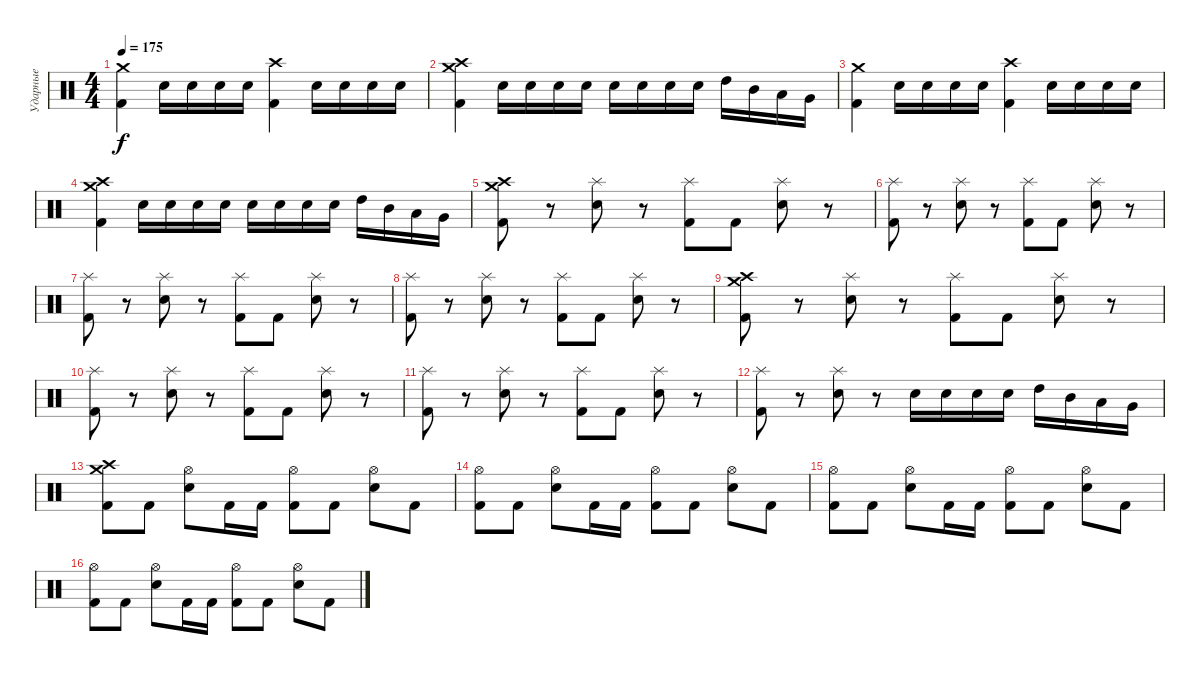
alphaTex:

\track ("Ударные" "Ударные") {instrument percussion}
\staff {score}
\articulation defaults
\ts (4 4)
\tempo 175
\clef neutral
\ks c
("Crash medium (hit)" "Kick (hit) 2").4{dy f} "Electric Snare (hit)".16 "Electric Snare (hit)".16 "Electric Snare (hit)".16 "Electric Snare (hit)".16 ("Crash high (hit)" "Kick (hit) 2").4 "Electric Snare (hit)".16 "Electric Snare (hit)".16 "Electric Snare (hit)".16 "Electric Snare (hit)".16 |
("Crash medium (hit)" "Crash high (hit)" "Kick (hit) 2").4 "Electric Snare (hit)".16 "Electric Snare (hit)".16 "Electric Snare (hit)".16 "Electric Snare (hit)".16 "Electric Snare (hit)".16 "Electric Snare (hit)".16 "Electric Snare (hit)".16 "Electric Snare (hit)".16 "High Tom (hit)".16 "Mid Tom (hit)".16 "Low Tom (hit)".16 "Very Low Tom (hit)".16 |
("Crash medium (hit)" "Kick (hit) 2").4 "Electric Snare (hit)".16 "Electric Snare (hit)".16 "Electric Snare (hit)".16 "Electric Snare (hit)".16 ("Crash high (hit)" "Kick (hit) 2").4 "Electric Snare (hit)".16 "Electric Snare (hit)".16 "Electric Snare (hit)".16 "Electric Snare (hit)".16 |
("Crash medium (hit)" "Crash high (hit)" "Kick (hit) 2").4 "Electric Snare (hit)".16 "Electric Snare (hit)".16 "Electric Snare (hit)".16 "Electric Snare (hit)".16 "Electric Snare (hit)".16 "Electric Snare (hit)".16 "Electric Snare (hit)".16 "Electric Snare (hit)".16 "High Tom (hit)".16 "Mid Tom (hit)".16 "Low Tom (hit)".16 "Very Low Tom (hit)".16 |
("Crash medium (hit)" "Crash high (hit)" "Kick (hit) 2").8 r.8 ("Splash (hit)" "Electric Snare (hit)").8 r.8 ("Splash (hit)" "Kick (hit) 2").8 "Kick (hit) 2".8 ("Splash (hit)" "Electric Snare (hit)").8 r.8 |
("Splash (hit)" "Kick (hit) 2").8 r.8 ("Splash (hit)" "Electric Snare (hit)").8 r.8 ("Splash (hit)" "Kick (hit) 2").8 "Kick (hit) 2".8 ("Splash (hit)" "Electric Snare (hit)").8 r.8 |
("Splash (hit)" "Kick (hit) 2").8 r.8 ("Splash (hit)" "Electric Snare (hit)").8 r.8 ("Splash (hit)" "Kick (hit) 2").8 "Kick (hit) 2".8 ("Splash (hit)" "Electric Snare (hit)").8 r.8 |
("Splash (hit)" "Kick (hit) 2").8 r.8 ("Splash (hit)" "Electric Snare (hit)").8 r.8 ("Splash (hit)" "Kick (hit) 2").8 "Kick (hit) 2".8 ("Splash (hit)" "Electric Snare (hit)").8 r.8 |
("Crash medium (hit)" "Crash high (hit)" "Kick (hit) 2").8 r.8 ("Splash (hit)" "Electric Snare (hit)").8 r.8 ("Splash (hit)" "Kick (hit) 2").8 "Kick (hit) 2".8 ("Splash (hit)" "Electric Snare (hit)").8 r.8 |
("Splash (hit)" "Kick (hit) 2").8 r.8 ("Splash (hit)" "Electric Snare (hit)").8 r.8 ("Splash (hit)" "Kick (hit) 2").8 "Kick (hit) 2".8 ("Splash (hit)" "Electric Snare (hit)").8 r.8 |
("Splash (hit)" "Kick (hit) 2").8 r.8 ("Splash (hit)" "Electric Snare (hit)").8 r.8 ("Splash (hit)" "Kick (hit) 2").8 "Kick (hit) 2".8 ("Splash (hit)" "Electric Snare (hit)").8 r.8 |
("Splash (hit)" "Kick (hit) 2").8 r.8 ("Splash (hit)" "Electric Snare (hit)").8 r.8 "Electric Snare (hit)".16 "Electric Snare (hit)".16 "Electric Snare (hit)".16 "Electric Snare (hit)".16 "High Tom (hit)".16 "Mid Tom (hit)".16 "Low Tom (hit)".16 "Very Low Tom (hit)".16 |
("Crash medium (hit)" "Crash high (hit)" "Kick (hit) 2").8 "Kick (hit) 2".8 ("Hi-Hat (open)" "Electric Snare (hit)").8 "Kick (hit) 2".16 "Kick (hit) 2".16 ("Hi-Hat (open)" "Kick (hit) 2").8 "Kick (hit) 2".8 ("Hi-Hat (open)" "Electric Snare (hit)").8 "Kick (hit) 2".8 |
("Hi-Hat (open)" "Kick (hit) 2").8 "Kick (hit) 2".8 ("Hi-Hat (open)" "Electric Snare (hit)").8 "Kick (hit) 2".16 "Kick (hit) 2".16 ("Hi-Hat (open)" "Kick (hit) 2").8 "Kick (hit) 2".8 ("Hi-Hat (open)" "Electric Snare (hit)").8 "Kick (hit) 2".8 |
("Hi-Hat (open)" "Kick (hit) 2").8 "Kick (hit) 2".8 ("Hi-Hat (open)" "Electric Snare (hit)").8 "Kick (hit) 2".16 "Kick (hit) 2".16 ("Hi-Hat (open)" "Kick (hit) 2").8 "Kick (hit) 2".8 ("Hi-Hat (open)" "Electric Snare (hit)").8 "Kick (hit) 2".8 |
("Hi-Hat (open)" "Kick (hit) 2").8 "Kick (hit) 2".8 ("Hi-Hat (open)" "Electric Snare (hit)").8 "Kick (hit) 2".16 "Kick (hit) 2".16 ("Hi-Hat (open)" "Kick (hit) 2").8 "Kick (hit) 2".8 ("Hi-Hat (open)" "Electric Snare (hit)").8 "Kick (hit) 2".8
